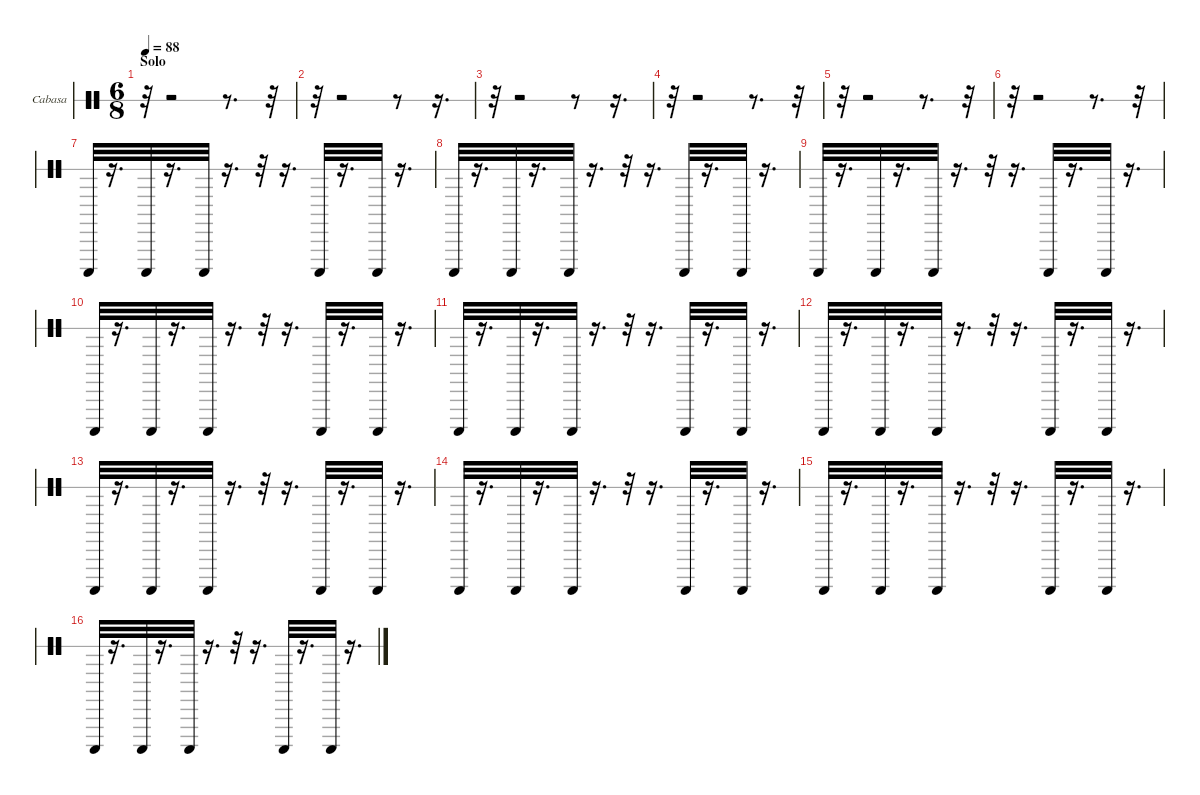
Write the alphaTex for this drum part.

\hideDynamics
\bracketExtendMode nobrackets
\firstSystemTrackNameOrientation horizontal
\otherSystemsTrackNameOrientation horizontal
\track ("Cabasa" "Cabasa") {instrument percussion}
\staff {score 1}
\articulation defaults
\ts (6 8)
\section ("" "Solo")
\tempo 88
\clef neutral
\ks c
r.32{dy f} r.2 r.8{d} r.32 |
r.32 r.2 r.8 r.16{d} |
r.32 r.2 r.8 r.16{d} |
r.32 r.2 r.8{d} r.32 |
r.32 r.2 r.8{d} r.32 |
r.32 r.2 r.8{d} r.32 |
"Cabasa (hit)".32{dy fff} r.16{d} "Cabasa (hit)".32{dy mf} r.16{d} "Cabasa (hit)".32{dy mp} r.16{d} r.32 r.16{d} "Cabasa (hit)".32{dy mf} r.16{d} "Cabasa (hit)".32{dy mp} r.16{d} |
"Cabasa (hit)".32{dy fff} r.16{d} "Cabasa (hit)".32{dy mf} r.16{d} "Cabasa (hit)".32{dy mp} r.16{d} r.32 r.16{d} "Cabasa (hit)".32{dy mf} r.16{d} "Cabasa (hit)".32{dy f} r.16{d} |
"Cabasa (hit)".32{dy fff} r.16{d} "Cabasa (hit)".32{dy mf} r.16{d} "Cabasa (hit)".32{dy mp} r.16{d} r.32 r.16{d} "Cabasa (hit)".32{dy mf} r.16{d} "Cabasa (hit)".32{dy mp} r.16{d} |
"Cabasa (hit)".32{dy fff} r.16{d} "Cabasa (hit)".32{dy mf} r.16{d} "Cabasa (hit)".32{dy mp} r.16{d} r.32 r.16{d} "Cabasa (hit)".32{dy mf} r.16{d} "Cabasa (hit)".32{dy f} r.16{d} |
"Cabasa (hit)".32{dy fff} r.16{d} "Cabasa (hit)".32{dy mf} r.16{d} "Cabasa (hit)".32{dy mp} r.16{d} r.32 r.16{d} "Cabasa (hit)".32{dy mf} r.16{d} "Cabasa (hit)".32{dy mp} r.16{d} |
"Cabasa (hit)".32{dy fff} r.16{d} "Cabasa (hit)".32{dy mf} r.16{d} "Cabasa (hit)".32{dy mp} r.16{d} r.32 r.16{d} "Cabasa (hit)".32{dy mf} r.16{d} "Cabasa (hit)".32{dy mp} r.16{d} |
"Cabasa (hit)".32{dy fff} r.16{d} "Cabasa (hit)".32{dy mf} r.16{d} "Cabasa (hit)".32{dy mp} r.16{d} r.32 r.16{d} "Cabasa (hit)".32{dy mf} r.16{d} "Cabasa (hit)".32{dy mp} r.16{d} |
"Cabasa (hit)".32{dy fff} r.16{d} "Cabasa (hit)".32{dy mf} r.16{d} "Cabasa (hit)".32{dy mp} r.16{d} r.32 r.16{d} "Cabasa (hit)".32{dy mf} r.16{d} "Cabasa (hit)".32{dy f} r.16{d} |
"Cabasa (hit)".32{dy fff} r.16{d} "Cabasa (hit)".32{dy mf} r.16{d} "Cabasa (hit)".32{dy mp} r.16{d} r.32 r.16{d} "Cabasa (hit)".32{dy mf} r.16{d} "Cabasa (hit)".32{dy mp} r.16{d} |
"Cabasa (hit)".32{dy fff} r.16{d} "Cabasa (hit)".32{dy mf} r.16{d} "Cabasa (hit)".32{dy mp} r.16{d} r.32 r.16{d} "Cabasa (hit)".32{dy mf} r.16{d} "Cabasa (hit)".32{dy mp} r.16{d}
